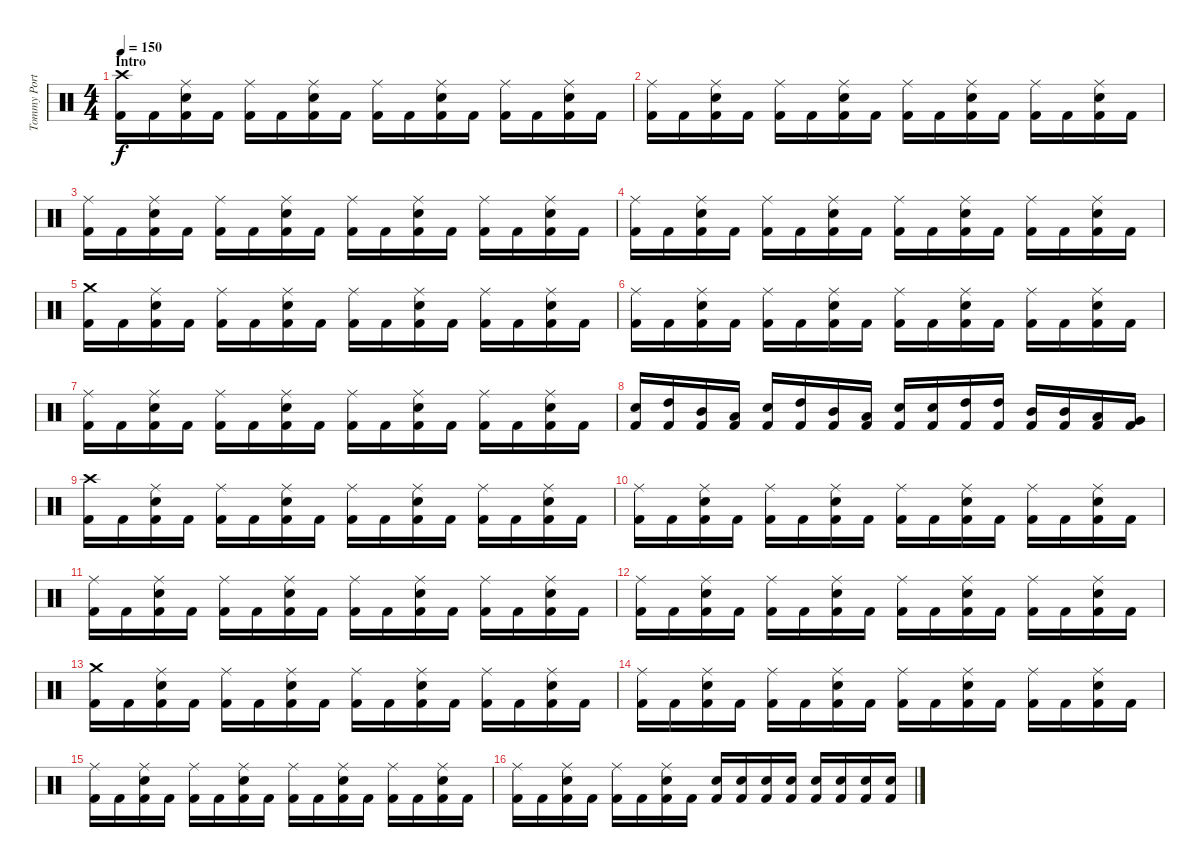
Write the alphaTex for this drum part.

\track ("Tommy Portino - Drums" "Tommy Port") {instrument percussion}
\staff {score}
\articulation defaults
\ts (4 4)
\section ("" "Intro")
\tempo 150
\clef neutral
\ks c
("Crash high (hit)" "Kick (hit) 2").16{dy f} "Kick (hit) 2".16 ("Ride (middle)" "Electric Snare (hit)" "Kick (hit) 2").16 "Kick (hit) 2".16 ("Ride (middle)" "Kick (hit) 2").16 "Kick (hit) 2".16 ("Ride (middle)" "Electric Snare (hit)" "Kick (hit) 2").16 "Kick (hit) 2".16 ("Ride (middle)" "Kick (hit) 2").16 "Kick (hit) 2".16 ("Ride (middle)" "Electric Snare (hit)" "Kick (hit) 2").16 "Kick (hit) 2".16 ("Ride (middle)" "Kick (hit) 2").16 "Kick (hit) 2".16 ("Ride (middle)" "Electric Snare (hit)" "Kick (hit) 2").16 "Kick (hit) 2".16 |
("Ride (middle)" "Kick (hit) 2").16 "Kick (hit) 2".16 ("Ride (middle)" "Electric Snare (hit)" "Kick (hit) 2").16 "Kick (hit) 2".16 ("Ride (middle)" "Kick (hit) 2").16 "Kick (hit) 2".16 ("Ride (middle)" "Electric Snare (hit)" "Kick (hit) 2").16 "Kick (hit) 2".16 ("Ride (middle)" "Kick (hit) 2").16 "Kick (hit) 2".16 ("Ride (middle)" "Electric Snare (hit)" "Kick (hit) 2").16 "Kick (hit) 2".16 ("Ride (middle)" "Kick (hit) 2").16 "Kick (hit) 2".16 ("Ride (middle)" "Electric Snare (hit)" "Kick (hit) 2").16 "Kick (hit) 2".16 |
("Ride (middle)" "Kick (hit) 2").16 "Kick (hit) 2".16 ("Ride (middle)" "Electric Snare (hit)" "Kick (hit) 2").16 "Kick (hit) 2".16 ("Ride (middle)" "Kick (hit) 2").16 "Kick (hit) 2".16 ("Ride (middle)" "Electric Snare (hit)" "Kick (hit) 2").16 "Kick (hit) 2".16 ("Ride (middle)" "Kick (hit) 2").16 "Kick (hit) 2".16 ("Ride (middle)" "Electric Snare (hit)" "Kick (hit) 2").16 "Kick (hit) 2".16 ("Ride (middle)" "Kick (hit) 2").16 "Kick (hit) 2".16 ("Ride (middle)" "Electric Snare (hit)" "Kick (hit) 2").16 "Kick (hit) 2".16 |
("Ride (middle)" "Kick (hit) 2").16 "Kick (hit) 2".16 ("Ride (middle)" "Electric Snare (hit)" "Kick (hit) 2").16 "Kick (hit) 2".16 ("Ride (middle)" "Kick (hit) 2").16 "Kick (hit) 2".16 ("Ride (middle)" "Electric Snare (hit)" "Kick (hit) 2").16 "Kick (hit) 2".16 ("Ride (middle)" "Kick (hit) 2").16 "Kick (hit) 2".16 ("Ride (middle)" "Electric Snare (hit)" "Kick (hit) 2").16 "Kick (hit) 2".16 ("Ride (middle)" "Kick (hit) 2").16 "Kick (hit) 2".16 ("Ride (middle)" "Electric Snare (hit)" "Kick (hit) 2").16 "Kick (hit) 2".16 |
("Crash medium (hit)" "Kick (hit) 2").16 "Kick (hit) 2".16 ("Ride (middle)" "Electric Snare (hit)" "Kick (hit) 2").16 "Kick (hit) 2".16 ("Ride (middle)" "Kick (hit) 2").16 "Kick (hit) 2".16 ("Ride (middle)" "Electric Snare (hit)" "Kick (hit) 2").16 "Kick (hit) 2".16 ("Ride (middle)" "Kick (hit) 2").16 "Kick (hit) 2".16 ("Ride (middle)" "Electric Snare (hit)" "Kick (hit) 2").16 "Kick (hit) 2".16 ("Ride (middle)" "Kick (hit) 2").16 "Kick (hit) 2".16 ("Ride (middle)" "Electric Snare (hit)" "Kick (hit) 2").16 "Kick (hit) 2".16 |
("Ride (middle)" "Kick (hit) 2").16 "Kick (hit) 2".16 ("Ride (middle)" "Electric Snare (hit)" "Kick (hit) 2").16 "Kick (hit) 2".16 ("Ride (middle)" "Kick (hit) 2").16 "Kick (hit) 2".16 ("Ride (middle)" "Electric Snare (hit)" "Kick (hit) 2").16 "Kick (hit) 2".16 ("Ride (middle)" "Kick (hit) 2").16 "Kick (hit) 2".16 ("Ride (middle)" "Electric Snare (hit)" "Kick (hit) 2").16 "Kick (hit) 2".16 ("Ride (middle)" "Kick (hit) 2").16 "Kick (hit) 2".16 ("Ride (middle)" "Electric Snare (hit)" "Kick (hit) 2").16 "Kick (hit) 2".16 |
("Ride (middle)" "Kick (hit) 2").16 "Kick (hit) 2".16 ("Ride (middle)" "Electric Snare (hit)" "Kick (hit) 2").16 "Kick (hit) 2".16 ("Ride (middle)" "Kick (hit) 2").16 "Kick (hit) 2".16 ("Ride (middle)" "Electric Snare (hit)" "Kick (hit) 2").16 "Kick (hit) 2".16 ("Ride (middle)" "Kick (hit) 2").16 "Kick (hit) 2".16 ("Ride (middle)" "Electric Snare (hit)" "Kick (hit) 2").16 "Kick (hit) 2".16 ("Ride (middle)" "Kick (hit) 2").16 "Kick (hit) 2".16 ("Ride (middle)" "Electric Snare (hit)" "Kick (hit) 2").16 "Kick (hit) 2".16 |
("Electric Snare (hit)" "Kick (hit) 2").16 ("High Tom (hit)" "Kick (hit) 2").16 ("Mid Tom (hit)" "Kick (hit) 2").16 ("Low Tom (hit)" "Kick (hit) 2").16 ("Electric Snare (hit)" "Kick (hit) 2").16 ("High Tom (hit)" "Kick (hit) 2").16 ("Mid Tom (hit)" "Kick (hit) 2").16 ("Low Tom (hit)" "Kick (hit) 2").16 ("Electric Snare (hit)" "Kick (hit) 2").16 ("Electric Snare (hit)" "Kick (hit) 2").16 ("High Tom (hit)" "Kick (hit) 2").16 ("High Tom (hit)" "Kick (hit) 2").16 ("Mid Tom (hit)" "Kick (hit) 2").16 ("Mid Tom (hit)" "Kick (hit) 2").16 ("Low Tom (hit)" "Kick (hit) 2").16 ("Very Low Tom (hit)" "Kick (hit) 2").16 |
("Crash high (hit)" "Kick (hit) 2").16 "Kick (hit) 2".16 ("Ride (middle)" "Electric Snare (hit)" "Kick (hit) 2").16 "Kick (hit) 2".16 ("Ride (middle)" "Kick (hit) 2").16 "Kick (hit) 2".16 ("Ride (middle)" "Electric Snare (hit)" "Kick (hit) 2").16 "Kick (hit) 2".16 ("Ride (middle)" "Kick (hit) 2").16 "Kick (hit) 2".16 ("Ride (middle)" "Electric Snare (hit)" "Kick (hit) 2").16 "Kick (hit) 2".16 ("Ride (middle)" "Kick (hit) 2").16 "Kick (hit) 2".16 ("Ride (middle)" "Electric Snare (hit)" "Kick (hit) 2").16 "Kick (hit) 2".16 |
("Ride (middle)" "Kick (hit) 2").16 "Kick (hit) 2".16 ("Ride (middle)" "Electric Snare (hit)" "Kick (hit) 2").16 "Kick (hit) 2".16 ("Ride (middle)" "Kick (hit) 2").16 "Kick (hit) 2".16 ("Ride (middle)" "Electric Snare (hit)" "Kick (hit) 2").16 "Kick (hit) 2".16 ("Ride (middle)" "Kick (hit) 2").16 "Kick (hit) 2".16 ("Ride (middle)" "Electric Snare (hit)" "Kick (hit) 2").16 "Kick (hit) 2".16 ("Ride (middle)" "Kick (hit) 2").16 "Kick (hit) 2".16 ("Ride (middle)" "Electric Snare (hit)" "Kick (hit) 2").16 "Kick (hit) 2".16 |
("Ride (middle)" "Kick (hit) 2").16 "Kick (hit) 2".16 ("Ride (middle)" "Electric Snare (hit)" "Kick (hit) 2").16 "Kick (hit) 2".16 ("Ride (middle)" "Kick (hit) 2").16 "Kick (hit) 2".16 ("Ride (middle)" "Electric Snare (hit)" "Kick (hit) 2").16 "Kick (hit) 2".16 ("Ride (middle)" "Kick (hit) 2").16 "Kick (hit) 2".16 ("Ride (middle)" "Electric Snare (hit)" "Kick (hit) 2").16 "Kick (hit) 2".16 ("Ride (middle)" "Kick (hit) 2").16 "Kick (hit) 2".16 ("Ride (middle)" "Electric Snare (hit)" "Kick (hit) 2").16 "Kick (hit) 2".16 |
("Ride (middle)" "Kick (hit) 2").16 "Kick (hit) 2".16 ("Ride (middle)" "Electric Snare (hit)" "Kick (hit) 2").16 "Kick (hit) 2".16 ("Ride (middle)" "Kick (hit) 2").16 "Kick (hit) 2".16 ("Ride (middle)" "Electric Snare (hit)" "Kick (hit) 2").16 "Kick (hit) 2".16 ("Ride (middle)" "Kick (hit) 2").16 "Kick (hit) 2".16 ("Ride (middle)" "Electric Snare (hit)" "Kick (hit) 2").16 "Kick (hit) 2".16 ("Ride (middle)" "Kick (hit) 2").16 "Kick (hit) 2".16 ("Ride (middle)" "Electric Snare (hit)" "Kick (hit) 2").16 "Kick (hit) 2".16 |
("Crash medium (hit)" "Kick (hit) 2").16 "Kick (hit) 2".16 ("Ride (middle)" "Electric Snare (hit)" "Kick (hit) 2").16 "Kick (hit) 2".16 ("Ride (middle)" "Kick (hit) 2").16 "Kick (hit) 2".16 ("Ride (middle)" "Electric Snare (hit)" "Kick (hit) 2").16 "Kick (hit) 2".16 ("Ride (middle)" "Kick (hit) 2").16 "Kick (hit) 2".16 ("Ride (middle)" "Electric Snare (hit)" "Kick (hit) 2").16 "Kick (hit) 2".16 ("Ride (middle)" "Kick (hit) 2").16 "Kick (hit) 2".16 ("Ride (middle)" "Electric Snare (hit)" "Kick (hit) 2").16 "Kick (hit) 2".16 |
("Ride (middle)" "Kick (hit) 2").16 "Kick (hit) 2".16 ("Ride (middle)" "Electric Snare (hit)" "Kick (hit) 2").16 "Kick (hit) 2".16 ("Ride (middle)" "Kick (hit) 2").16 "Kick (hit) 2".16 ("Ride (middle)" "Electric Snare (hit)" "Kick (hit) 2").16 "Kick (hit) 2".16 ("Ride (middle)" "Kick (hit) 2").16 "Kick (hit) 2".16 ("Ride (middle)" "Electric Snare (hit)" "Kick (hit) 2").16 "Kick (hit) 2".16 ("Ride (middle)" "Kick (hit) 2").16 "Kick (hit) 2".16 ("Ride (middle)" "Electric Snare (hit)" "Kick (hit) 2").16 "Kick (hit) 2".16 |
("Ride (middle)" "Kick (hit) 2").16 "Kick (hit) 2".16 ("Ride (middle)" "Electric Snare (hit)" "Kick (hit) 2").16 "Kick (hit) 2".16 ("Ride (middle)" "Kick (hit) 2").16 "Kick (hit) 2".16 ("Ride (middle)" "Electric Snare (hit)" "Kick (hit) 2").16 "Kick (hit) 2".16 ("Ride (middle)" "Kick (hit) 2").16 "Kick (hit) 2".16 ("Ride (middle)" "Electric Snare (hit)" "Kick (hit) 2").16 "Kick (hit) 2".16 ("Ride (middle)" "Kick (hit) 2").16 "Kick (hit) 2".16 ("Ride (middle)" "Electric Snare (hit)" "Kick (hit) 2").16 "Kick (hit) 2".16 |
("Ride (middle)" "Kick (hit) 2").16 "Kick (hit) 2".16 ("Ride (middle)" "Electric Snare (hit)" "Kick (hit) 2").16 "Kick (hit) 2".16 ("Ride (middle)" "Kick (hit) 2").16 "Kick (hit) 2".16 ("Ride (middle)" "Electric Snare (hit)" "Kick (hit) 2").16 "Kick (hit) 2".16 ("Electric Snare (hit)" "Kick (hit) 2").16 ("Electric Snare (hit)" "Kick (hit) 2").16 ("Electric Snare (hit)" "Kick (hit) 2").16 ("Electric Snare (hit)" "Kick (hit) 2").16 ("Electric Snare (hit)" "Kick (hit) 2").16 ("Electric Snare (hit)" "Kick (hit) 2").16 ("Electric Snare (hit)" "Kick (hit) 2").16 ("Electric Snare (hit)" "Kick (hit) 2").16
